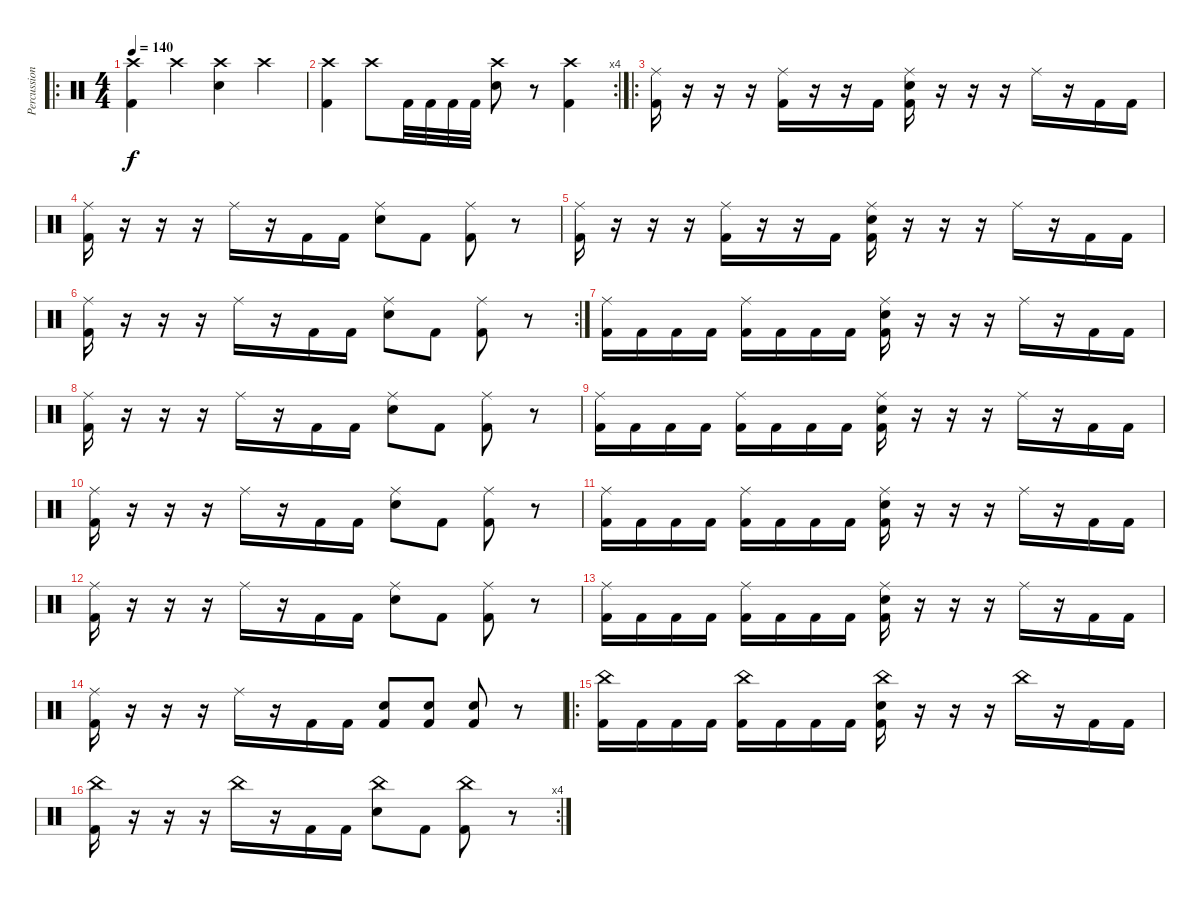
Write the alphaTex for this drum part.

\track ("Percussion" "Percussion") {instrument percussion}
\staff {score}
\articulation defaults
\ro
\ts (4 4)
\tempo 140
\clef neutral
\ks c
("Crash high (hit)" "Kick (hit) 2").4{dy f} "Crash high (hit)".4 ("Crash high (hit)" "Snare (hit) 2").4 "Crash high (hit)".4 |
\rc 4
("Crash high (hit)" "Kick (hit) 2").4 "Crash high (hit)".8 "Kick (hit) 2".32 "Kick (hit) 2".32 "Kick (hit) 2".32 "Kick (hit) 2".32 ("Crash high (hit)" "Snare (hit) 2").8 r.8 ("Crash high (hit)" "Kick (hit) 2").4 |
\ro
("Ride (middle)" "Kick (hit) 2").16 r.16 r.16 r.16 ("Ride (middle)" "Kick (hit) 2").16 r.16 r.16 "Kick (hit) 2".16 ("Ride (middle)" "Snare (hit) 2" "Kick (hit) 2").16 r.16 r.16 r.16 "Ride (middle)".16 r.16 "Kick (hit) 2".16 "Kick (hit) 2".16 |
("Ride (middle)" "Kick (hit) 2").16 r.16 r.16 r.16 "Ride (middle)".16 r.16 "Kick (hit) 2".16 "Kick (hit) 2".16 ("Ride (middle)" "Snare (hit) 2").8 "Kick (hit) 2".8 ("Ride (middle)" "Kick (hit) 2").8 r.8 |
("Ride (middle)" "Kick (hit) 2").16 r.16 r.16 r.16 ("Ride (middle)" "Kick (hit) 2").16 r.16 r.16 "Kick (hit) 2".16 ("Ride (middle)" "Snare (hit) 2" "Kick (hit) 2").16 r.16 r.16 r.16 "Ride (middle)".16 r.16 "Kick (hit) 2".16 "Kick (hit) 2".16 |
\rc 2
("Ride (middle)" "Kick (hit) 2").16 r.16 r.16 r.16 "Ride (middle)".16 r.16 "Kick (hit) 2".16 "Kick (hit) 2".16 ("Ride (middle)" "Snare (hit) 2").8 "Kick (hit) 2".8 ("Ride (middle)" "Kick (hit) 2").8 r.8 |
("Ride (middle)" "Kick (hit) 2").16 "Kick (hit) 2".16 "Kick (hit) 2".16 "Kick (hit) 2".16 ("Ride (middle)" "Kick (hit) 2").16 "Kick (hit) 2".16 "Kick (hit) 2".16 "Kick (hit) 2".16 ("Ride (middle)" "Snare (hit) 2" "Kick (hit) 2").16 r.16 r.16 r.16 "Ride (middle)".16 r.16 "Kick (hit) 2".16 "Kick (hit) 2".16 |
("Ride (middle)" "Kick (hit) 2").16 r.16 r.16 r.16 "Ride (middle)".16 r.16 "Kick (hit) 2".16 "Kick (hit) 2".16 ("Ride (middle)" "Snare (hit) 2").8 "Kick (hit) 2".8 ("Ride (middle)" "Kick (hit) 2").8 r.8 |
("Ride (middle)" "Kick (hit) 2").16 "Kick (hit) 2".16 "Kick (hit) 2".16 "Kick (hit) 2".16 ("Ride (middle)" "Kick (hit) 2").16 "Kick (hit) 2".16 "Kick (hit) 2".16 "Kick (hit) 2".16 ("Ride (middle)" "Snare (hit) 2" "Kick (hit) 2").16 r.16 r.16 r.16 "Ride (middle)".16 r.16 "Kick (hit) 2".16 "Kick (hit) 2".16 |
("Ride (middle)" "Kick (hit) 2").16 r.16 r.16 r.16 "Ride (middle)".16 r.16 "Kick (hit) 2".16 "Kick (hit) 2".16 ("Ride (middle)" "Snare (hit) 2").8 "Kick (hit) 2".8 ("Ride (middle)" "Kick (hit) 2").8 r.8 |
("Ride (middle)" "Kick (hit) 2").16 "Kick (hit) 2".16 "Kick (hit) 2".16 "Kick (hit) 2".16 ("Ride (middle)" "Kick (hit) 2").16 "Kick (hit) 2".16 "Kick (hit) 2".16 "Kick (hit) 2".16 ("Ride (middle)" "Snare (hit) 2" "Kick (hit) 2").16 r.16 r.16 r.16 "Ride (middle)".16 r.16 "Kick (hit) 2".16 "Kick (hit) 2".16 |
("Ride (middle)" "Kick (hit) 2").16 r.16 r.16 r.16 "Ride (middle)".16 r.16 "Kick (hit) 2".16 "Kick (hit) 2".16 ("Ride (middle)" "Snare (hit) 2").8 "Kick (hit) 2".8 ("Ride (middle)" "Kick (hit) 2").8 r.8 |
("Ride (middle)" "Kick (hit) 2").16 "Kick (hit) 2".16 "Kick (hit) 2".16 "Kick (hit) 2".16 ("Ride (middle)" "Kick (hit) 2").16 "Kick (hit) 2".16 "Kick (hit) 2".16 "Kick (hit) 2".16 ("Ride (middle)" "Snare (hit) 2" "Kick (hit) 2").16 r.16 r.16 r.16 "Ride (middle)".16 r.16 "Kick (hit) 2".16 "Kick (hit) 2".16 |
("Ride (middle)" "Kick (hit) 2").16 r.16 r.16 r.16 "Ride (middle)".16 r.16 "Kick (hit) 2".16 "Kick (hit) 2".16 ("Kick (hit) 2" "Snare (hit) 2").8 ("Kick (hit) 2" "Snare (hit) 2").8 ("Kick (hit) 2" "Snare (hit) 2").8 r.8 |
\ro
("China (hit)" "Kick (hit) 2").16 "Kick (hit) 2".16 "Kick (hit) 2".16 "Kick (hit) 2".16 ("China (hit)" "Kick (hit) 2").16 "Kick (hit) 2".16 "Kick (hit) 2".16 "Kick (hit) 2".16 ("China (hit)" "Snare (hit) 2" "Kick (hit) 2").16 r.16 r.16 r.16 "China (hit)".16 r.16 "Kick (hit) 2".16 "Kick (hit) 2".16 |
\rc 4
("China (hit)" "Kick (hit) 2").16 r.16 r.16 r.16 "China (hit)".16 r.16 "Kick (hit) 2".16 "Kick (hit) 2".16 ("China (hit)" "Snare (hit) 2").8 "Kick (hit) 2".8 ("China (hit)" "Kick (hit) 2").8 r.8
